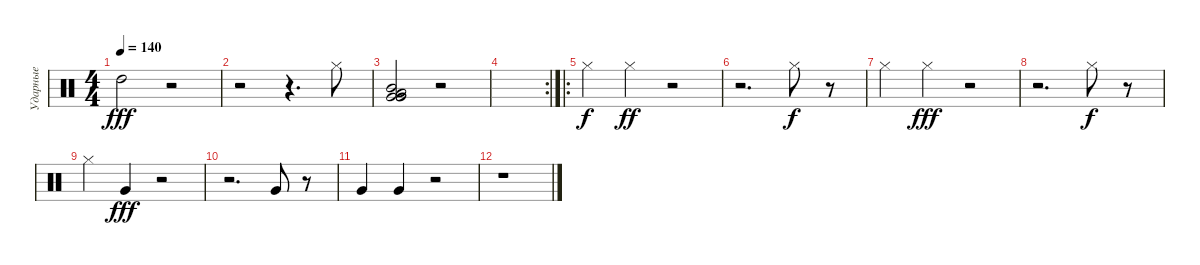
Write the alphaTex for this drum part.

\track ("Ударные" "Ударные") {instrument percussion}
\staff {score}
\articulation defaults
\ts (4 4)
\tempo 140
\clef neutral
\ks c "High Tom (hit)".2{dy fff}
r.2 |
r.2 r.4{d} "Hi-Hat (closed)".8 |
("Low Tom (hit)" "Mid Tom (hit)" "Very Low Tom (hit)" "Very Low Tom (hit)" "Very Low Tom (hit)").2 r.2 |
\rc 2
|
\ro "Hi-Hat (closed)".4{dy f} "Hi-Hat (closed)".4{dy ff}
r.2 |
r.2{d} "Hi-Hat (closed)".8{dy f} r.8 |
"Hi-Hat (closed)".4 "Hi-Hat (closed)".4{dy fff} r.2 |
r.2{d} "Hi-Hat (closed)".8{dy f} r.8 |
"Hi-Hat (closed)".4 "Very Low Tom (hit)".4{dy fff} r.2 |
r.2{d} "Very Low Tom (hit)".8 r.8 |
"Very Low Tom (hit)".4 "Very Low Tom (hit)".4 r.2 |
r.1
